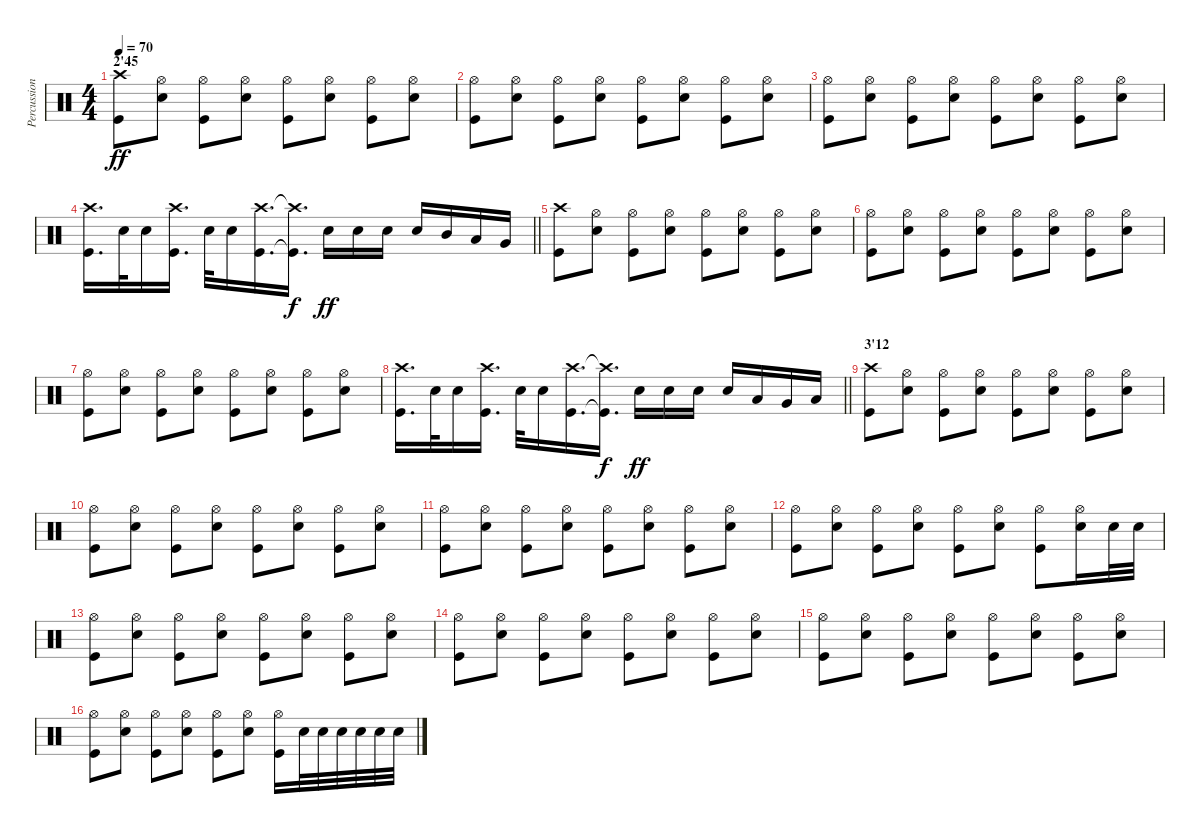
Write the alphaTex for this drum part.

\track ("Percussions" "Percussion") {instrument percussion}
\staff {score}
\articulation defaults
\ts (4 4)
\section ("" "2'45")
\tempo 70
\clef neutral
\ks c
("Kick (hit)" "Crash high (hit)").8{dy ff} ("Electric Snare (hit)" "Hi-Hat (open)").8 ("Kick (hit)" "Hi-Hat (open)").8 ("Electric Snare (hit)" "Hi-Hat (open)").8 ("Kick (hit)" "Hi-Hat (open)").8 ("Electric Snare (hit)" "Hi-Hat (open)").8 ("Kick (hit)" "Hi-Hat (open)").8 ("Electric Snare (hit)" "Hi-Hat (open)").8 |
("Kick (hit)" "Hi-Hat (open)").8 ("Electric Snare (hit)" "Hi-Hat (open)").8 ("Kick (hit)" "Hi-Hat (open)").8 ("Electric Snare (hit)" "Hi-Hat (open)").8 ("Kick (hit)" "Hi-Hat (open)").8 ("Electric Snare (hit)" "Hi-Hat (open)").8 ("Kick (hit)" "Hi-Hat (open)").8 ("Electric Snare (hit)" "Hi-Hat (open)").8 |
("Kick (hit)" "Hi-Hat (open)").8 ("Electric Snare (hit)" "Hi-Hat (open)").8 ("Kick (hit)" "Hi-Hat (open)").8 ("Electric Snare (hit)" "Hi-Hat (open)").8 ("Kick (hit)" "Hi-Hat (open)").8 ("Electric Snare (hit)" "Hi-Hat (open)").8 ("Kick (hit)" "Hi-Hat (open)").8 ("Electric Snare (hit)" "Hi-Hat (open)").8 |
\barLineRight lightlight
("Kick (hit)" "Crash high (hit)").16{d} "Electric Snare (hit)".32 "Electric Snare (hit)".16 ("Kick (hit)" "Crash high (hit)").16{d} "Electric Snare (hit)".32 "Electric Snare (hit)".16 ("Kick (hit)" "Crash high (hit)").16{d} ("Kick (hit)"{t} "Crash high (hit)"{t}).16{d dy f} "Electric Snare (hit)".16{dy ff} "Electric Snare (hit)".16 "Electric Snare (hit)".16 "Electric Snare (hit)".16{beam Up} "Mid Tom (hit)".16{beam Up} "Low Tom (hit)".16{beam Up} "Very Low Tom (hit)".16{beam Up} |
("Kick (hit)" "Crash high (hit)").8 ("Electric Snare (hit)" "Hi-Hat (open)").8 ("Kick (hit)" "Hi-Hat (open)").8 ("Electric Snare (hit)" "Hi-Hat (open)").8 ("Kick (hit)" "Hi-Hat (open)").8 ("Electric Snare (hit)" "Hi-Hat (open)").8 ("Kick (hit)" "Hi-Hat (open)").8 ("Electric Snare (hit)" "Hi-Hat (open)").8 |
("Kick (hit)" "Hi-Hat (open)").8 ("Electric Snare (hit)" "Hi-Hat (open)").8 ("Kick (hit)" "Hi-Hat (open)").8 ("Electric Snare (hit)" "Hi-Hat (open)").8 ("Kick (hit)" "Hi-Hat (open)").8 ("Electric Snare (hit)" "Hi-Hat (open)").8 ("Kick (hit)" "Hi-Hat (open)").8 ("Electric Snare (hit)" "Hi-Hat (open)").8 |
("Kick (hit)" "Hi-Hat (open)").8 ("Electric Snare (hit)" "Hi-Hat (open)").8 ("Kick (hit)" "Hi-Hat (open)").8 ("Electric Snare (hit)" "Hi-Hat (open)").8 ("Kick (hit)" "Hi-Hat (open)").8 ("Electric Snare (hit)" "Hi-Hat (open)").8 ("Kick (hit)" "Hi-Hat (open)").8 ("Electric Snare (hit)" "Hi-Hat (open)").8 |
\barLineRight lightlight
("Kick (hit)" "Crash high (hit)").16{d} "Electric Snare (hit)".32 "Electric Snare (hit)".16 ("Kick (hit)" "Crash high (hit)").16{d} "Electric Snare (hit)".32 "Electric Snare (hit)".16 ("Kick (hit)" "Crash high (hit)").16{d} ("Kick (hit)"{t} "Crash high (hit)"{t}).16{d dy f} "Electric Snare (hit)".16{dy ff} "Electric Snare (hit)".16 "Electric Snare (hit)".16 "Electric Snare (hit)".16{beam Up} "Low Tom (hit)".16{beam Up} "Very Low Tom (hit)".16{beam Up} "Low Floor Tom (hit)".16{beam Up} |
\section ("" "3'12")
("Kick (hit)" "Crash high (hit)").8 ("Electric Snare (hit)" "Hi-Hat (open)").8 ("Kick (hit)" "Hi-Hat (open)").8 ("Electric Snare (hit)" "Hi-Hat (open)").8 ("Kick (hit)" "Hi-Hat (open)").8 ("Electric Snare (hit)" "Hi-Hat (open)").8 ("Kick (hit)" "Hi-Hat (open)").8 ("Electric Snare (hit)" "Hi-Hat (open)").8 |
("Kick (hit)" "Hi-Hat (open)").8 ("Electric Snare (hit)" "Hi-Hat (open)").8 ("Kick (hit)" "Hi-Hat (open)").8 ("Electric Snare (hit)" "Hi-Hat (open)").8 ("Kick (hit)" "Hi-Hat (open)").8 ("Electric Snare (hit)" "Hi-Hat (open)").8 ("Kick (hit)" "Hi-Hat (open)").8 ("Electric Snare (hit)" "Hi-Hat (open)").8 |
("Kick (hit)" "Hi-Hat (open)").8 ("Electric Snare (hit)" "Hi-Hat (open)").8 ("Kick (hit)" "Hi-Hat (open)").8 ("Electric Snare (hit)" "Hi-Hat (open)").8 ("Kick (hit)" "Hi-Hat (open)").8 ("Electric Snare (hit)" "Hi-Hat (open)").8 ("Kick (hit)" "Hi-Hat (open)").8 ("Electric Snare (hit)" "Hi-Hat (open)").8 |
("Kick (hit)" "Hi-Hat (open)").8 ("Electric Snare (hit)" "Hi-Hat (open)").8 ("Kick (hit)" "Hi-Hat (open)").8 ("Electric Snare (hit)" "Hi-Hat (open)").8 ("Kick (hit)" "Hi-Hat (open)").8 ("Electric Snare (hit)" "Hi-Hat (open)").8 ("Kick (hit)" "Hi-Hat (open)").8 ("Electric Snare (hit)" "Hi-Hat (open)").16 "Electric Snare (hit)".32 "Electric Snare (hit)".32 |
("Kick (hit)" "Hi-Hat (open)").8 ("Electric Snare (hit)" "Hi-Hat (open)").8 ("Kick (hit)" "Hi-Hat (open)").8 ("Electric Snare (hit)" "Hi-Hat (open)").8 ("Kick (hit)" "Hi-Hat (open)").8 ("Electric Snare (hit)" "Hi-Hat (open)").8 ("Kick (hit)" "Hi-Hat (open)").8 ("Electric Snare (hit)" "Hi-Hat (open)").8 |
("Kick (hit)" "Hi-Hat (open)").8 ("Electric Snare (hit)" "Hi-Hat (open)").8 ("Kick (hit)" "Hi-Hat (open)").8 ("Electric Snare (hit)" "Hi-Hat (open)").8 ("Kick (hit)" "Hi-Hat (open)").8 ("Electric Snare (hit)" "Hi-Hat (open)").8 ("Kick (hit)" "Hi-Hat (open)").8 ("Electric Snare (hit)" "Hi-Hat (open)").8 |
("Kick (hit)" "Hi-Hat (open)").8 ("Electric Snare (hit)" "Hi-Hat (open)").8 ("Kick (hit)" "Hi-Hat (open)").8 ("Electric Snare (hit)" "Hi-Hat (open)").8 ("Kick (hit)" "Hi-Hat (open)").8 ("Electric Snare (hit)" "Hi-Hat (open)").8 ("Kick (hit)" "Hi-Hat (open)").8 ("Electric Snare (hit)" "Hi-Hat (open)").8 |
("Kick (hit)" "Hi-Hat (open)").8 ("Electric Snare (hit)" "Hi-Hat (open)").8 ("Kick (hit)" "Hi-Hat (open)").8 ("Electric Snare (hit)" "Hi-Hat (open)").8 ("Kick (hit)" "Hi-Hat (open)").8 ("Electric Snare (hit)" "Hi-Hat (open)").8 ("Kick (hit)" "Hi-Hat (open)").16 "Electric Snare (hit)".32 "Electric Snare (hit)".32 "Electric Snare (hit)".32 "Electric Snare (hit)".32 "Electric Snare (hit)".32 "Electric Snare (hit)".32
